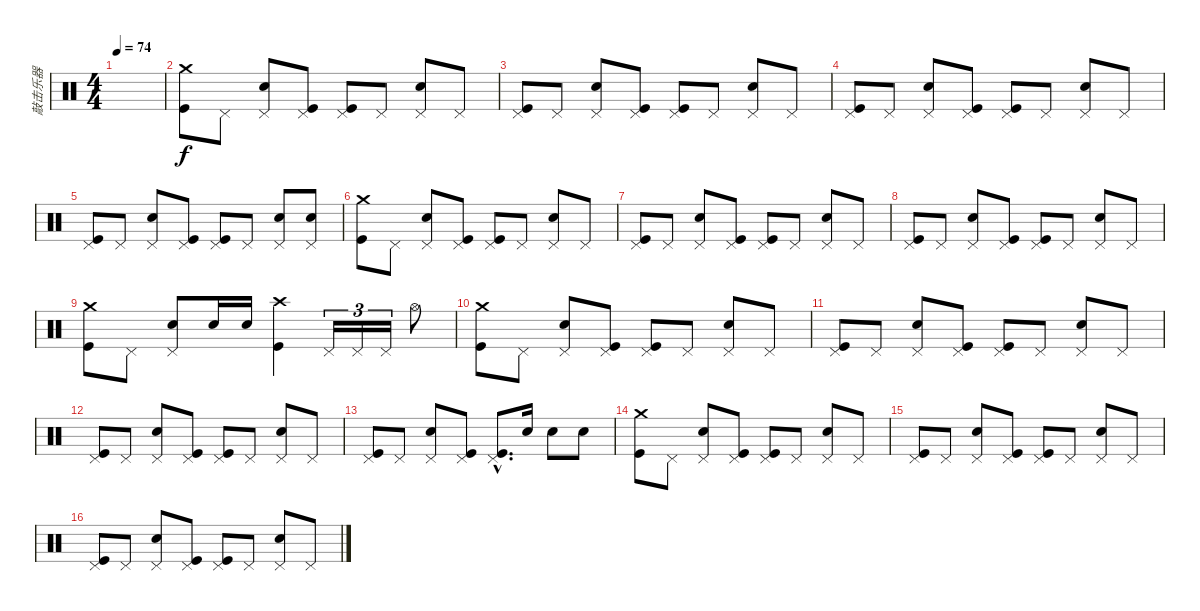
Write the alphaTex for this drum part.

\track ("敲击乐器" "敲击乐器") {instrument percussion}
\staff {score}
\articulation defaults
\ts (4 4)
\tempo 74
\clef neutral
\ks c
|
("Crash medium (hit)" "Kick (hit)").8 "Pedal Hi-Hat (hit)".8 ("Pedal Hi-Hat (hit)" "Snare (hit) 2").8 ("Pedal Hi-Hat (hit)" "Kick (hit)").8 ("Pedal Hi-Hat (hit)" "Kick (hit)").8 "Pedal Hi-Hat (hit)".8 ("Pedal Hi-Hat (hit)" "Snare (hit) 2").8 "Pedal Hi-Hat (hit)".8 |
("Pedal Hi-Hat (hit)" "Kick (hit)").8 "Pedal Hi-Hat (hit)".8 ("Pedal Hi-Hat (hit)" "Snare (hit) 2").8 ("Pedal Hi-Hat (hit)" "Kick (hit)").8 ("Pedal Hi-Hat (hit)" "Kick (hit)").8 "Pedal Hi-Hat (hit)".8 ("Pedal Hi-Hat (hit)" "Snare (hit) 2").8 "Pedal Hi-Hat (hit)".8 |
("Pedal Hi-Hat (hit)" "Kick (hit)").8 "Pedal Hi-Hat (hit)".8 ("Pedal Hi-Hat (hit)" "Snare (hit) 2").8 ("Pedal Hi-Hat (hit)" "Kick (hit)").8 ("Pedal Hi-Hat (hit)" "Kick (hit)").8 "Pedal Hi-Hat (hit)".8 ("Pedal Hi-Hat (hit)" "Snare (hit) 2").8 "Pedal Hi-Hat (hit)".8 |
("Pedal Hi-Hat (hit)" "Kick (hit)").8 "Pedal Hi-Hat (hit)".8 ("Pedal Hi-Hat (hit)" "Snare (hit) 2").8 ("Pedal Hi-Hat (hit)" "Kick (hit)").8 ("Pedal Hi-Hat (hit)" "Kick (hit)").8 "Pedal Hi-Hat (hit)".8 ("Pedal Hi-Hat (hit)" "Snare (hit) 2").8 ("Pedal Hi-Hat (hit)" "Snare (hit) 2").8 |
("Crash medium (hit)" "Kick (hit)").8 "Pedal Hi-Hat (hit)".8 ("Pedal Hi-Hat (hit)" "Snare (hit) 2").8 ("Pedal Hi-Hat (hit)" "Kick (hit)").8 ("Pedal Hi-Hat (hit)" "Kick (hit)").8 "Pedal Hi-Hat (hit)".8 ("Pedal Hi-Hat (hit)" "Snare (hit) 2").8 "Pedal Hi-Hat (hit)".8 |
("Pedal Hi-Hat (hit)" "Kick (hit)").8 "Pedal Hi-Hat (hit)".8 ("Pedal Hi-Hat (hit)" "Snare (hit) 2").8 ("Pedal Hi-Hat (hit)" "Kick (hit)").8 ("Pedal Hi-Hat (hit)" "Kick (hit)").8 "Pedal Hi-Hat (hit)".8 ("Pedal Hi-Hat (hit)" "Snare (hit) 2").8 "Pedal Hi-Hat (hit)".8 |
("Pedal Hi-Hat (hit)" "Kick (hit)").8 "Pedal Hi-Hat (hit)".8 ("Pedal Hi-Hat (hit)" "Snare (hit) 2").8 ("Pedal Hi-Hat (hit)" "Kick (hit)").8 ("Pedal Hi-Hat (hit)" "Kick (hit)").8 "Pedal Hi-Hat (hit)".8 ("Pedal Hi-Hat (hit)" "Snare (hit) 2").8 "Pedal Hi-Hat (hit)".8 |
("Crash medium (hit)" "Kick (hit)").8 "Pedal Hi-Hat (hit)".8 ("Pedal Hi-Hat (hit)" "Snare (hit) 2").8 "Snare (hit) 2".16 "Snare (hit) 2".16 ("Crash high (hit)" "Kick (hit)").4 "Pedal Hi-Hat (hit)".16{tu (3 2)} "Pedal Hi-Hat (hit)".16{tu (3 2)} "Pedal Hi-Hat (hit)".16{tu (3 2)} "Hi-Hat (open)".8 |
("Crash medium (hit)" "Kick (hit)").8 "Pedal Hi-Hat (hit)".8 ("Pedal Hi-Hat (hit)" "Snare (hit) 2").8 ("Pedal Hi-Hat (hit)" "Kick (hit)").8 ("Pedal Hi-Hat (hit)" "Kick (hit)").8 "Pedal Hi-Hat (hit)".8 ("Pedal Hi-Hat (hit)" "Snare (hit) 2").8 "Pedal Hi-Hat (hit)".8 |
("Pedal Hi-Hat (hit)" "Kick (hit)").8 "Pedal Hi-Hat (hit)".8 ("Pedal Hi-Hat (hit)" "Snare (hit) 2").8 ("Pedal Hi-Hat (hit)" "Kick (hit)").8 ("Pedal Hi-Hat (hit)" "Kick (hit)").8 "Pedal Hi-Hat (hit)".8 ("Pedal Hi-Hat (hit)" "Snare (hit) 2").8 "Pedal Hi-Hat (hit)".8 |
("Pedal Hi-Hat (hit)" "Kick (hit)").8 "Pedal Hi-Hat (hit)".8 ("Pedal Hi-Hat (hit)" "Snare (hit) 2").8 ("Pedal Hi-Hat (hit)" "Kick (hit)").8 ("Pedal Hi-Hat (hit)" "Kick (hit)").8 "Pedal Hi-Hat (hit)".8 ("Pedal Hi-Hat (hit)" "Snare (hit) 2").8 "Pedal Hi-Hat (hit)".8 |
("Pedal Hi-Hat (hit)" "Kick (hit)").8 "Pedal Hi-Hat (hit)".8 ("Pedal Hi-Hat (hit)" "Snare (hit) 2").8 ("Pedal Hi-Hat (hit)" "Kick (hit)").8 ("Pedal Hi-Hat (hit)"{hac} "Kick (hit)"{hac}).8{d} "Snare (hit) 2".16 "Snare (hit) 2".8 "Snare (hit) 2".8 |
("Crash medium (hit)" "Kick (hit)").8 "Pedal Hi-Hat (hit)".8 ("Pedal Hi-Hat (hit)" "Snare (hit) 2").8 ("Pedal Hi-Hat (hit)" "Kick (hit)").8 ("Pedal Hi-Hat (hit)" "Kick (hit)").8 "Pedal Hi-Hat (hit)".8 ("Pedal Hi-Hat (hit)" "Snare (hit) 2").8 "Pedal Hi-Hat (hit)".8 |
("Pedal Hi-Hat (hit)" "Kick (hit)").8 "Pedal Hi-Hat (hit)".8 ("Pedal Hi-Hat (hit)" "Snare (hit) 2").8 ("Pedal Hi-Hat (hit)" "Kick (hit)").8 ("Pedal Hi-Hat (hit)" "Kick (hit)").8 "Pedal Hi-Hat (hit)".8 ("Pedal Hi-Hat (hit)" "Snare (hit) 2").8 "Pedal Hi-Hat (hit)".8 |
("Pedal Hi-Hat (hit)" "Kick (hit)").8 "Pedal Hi-Hat (hit)".8 ("Pedal Hi-Hat (hit)" "Snare (hit) 2").8 ("Pedal Hi-Hat (hit)" "Kick (hit)").8 ("Pedal Hi-Hat (hit)" "Kick (hit)").8 "Pedal Hi-Hat (hit)".8 ("Pedal Hi-Hat (hit)" "Snare (hit) 2").8 "Pedal Hi-Hat (hit)".8
